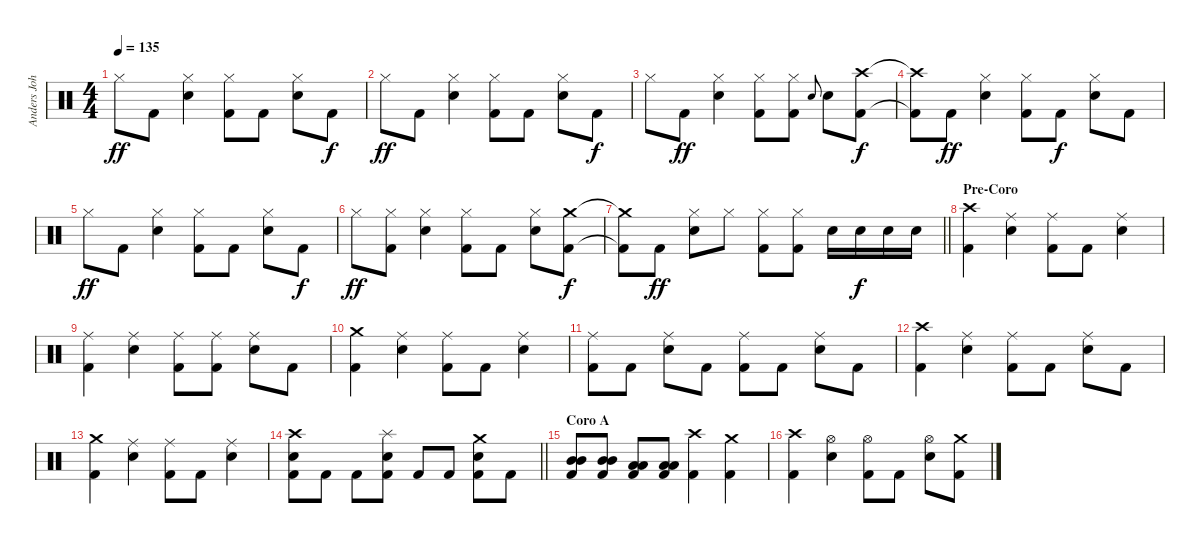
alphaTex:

\track ("Anders Johansson" "Anders Joh") {instrument percussion}
\staff {score}
\articulation defaults
\ts (4 4)
\tempo 135
\clef neutral
\ks c "Hi-Hat (closed)".8{dy ff} "Kick (hit) 2".8
("Hi-Hat (closed)" "Snare (hit) 2").4 ("Hi-Hat (closed)" "Kick (hit) 2").8 "Kick (hit) 2".8 ("Hi-Hat (closed)" "Snare (hit) 2").8 "Kick (hit) 2".8{dy f} |
"Hi-Hat (closed)".8{dy ff} "Kick (hit) 2".8 ("Hi-Hat (closed)" "Snare (hit) 2").4 ("Hi-Hat (closed)" "Kick (hit) 2").8 "Kick (hit) 2".8 ("Hi-Hat (closed)" "Snare (hit) 2").8 "Kick (hit) 2".8{dy f} |
"Hi-Hat (closed)".8 "Kick (hit) 2".8{dy ff} ("Hi-Hat (closed)" "Snare (hit) 2").4 ("Hi-Hat (closed)" "Kick (hit) 2").8 ("Hi-Hat (closed)" "Kick (hit) 2").8 "Snare (hit) 2".8{gr onbeat} "Snare (hit) 2".8 ("Crash high (hit)" "Kick (hit) 2").8{dy f} |
("Crash high (hit)"{t} "Kick (hit) 2"{t}).8 "Kick (hit) 2".8{dy ff} ("Hi-Hat (closed)" "Snare (hit) 2").4 ("Hi-Hat (closed)" "Kick (hit) 2").8 "Kick (hit) 2".8{dy f} ("Hi-Hat (closed)" "Snare (hit) 2").8 "Kick (hit) 2".8 |
"Hi-Hat (closed)".8{dy ff} "Kick (hit) 2".8 ("Hi-Hat (closed)" "Snare (hit) 2").4 ("Hi-Hat (closed)" "Kick (hit) 2").8 "Kick (hit) 2".8 ("Hi-Hat (closed)" "Snare (hit) 2").8 "Kick (hit) 2".8{dy f} |
"Hi-Hat (closed)".8{dy ff} ("Hi-Hat (closed)" "Kick (hit) 2").8 ("Hi-Hat (closed)" "Snare (hit) 2").4 ("Hi-Hat (closed)" "Kick (hit) 2").8 "Kick (hit) 2".8 ("Hi-Hat (closed)" "Snare (hit) 2").8 ("Crash medium (hit)" "Kick (hit) 2").8{dy f} |
\barLineRight lightlight
("Crash medium (hit)"{t} "Kick (hit) 2"{t}).8 "Kick (hit) 2".8{dy ff} ("Hi-Hat (closed)" "Snare (hit) 2").8 "Hi-Hat (closed)".8 ("Hi-Hat (closed)" "Kick (hit) 2").8 ("Hi-Hat (closed)" "Kick (hit) 2").8 "Snare (hit) 2".16 "Snare (hit) 2".16{dy f} "Snare (hit) 2".16 "Snare (hit) 2".16 |
\section ("" "Pre-Coro")
("Crash high (hit)" "Kick (hit) 2").4 ("Ride (middle)" "Snare (hit) 2").4 ("Ride (middle)" "Kick (hit) 2").8 "Kick (hit) 2".8 ("Ride (middle)" "Snare (hit) 2").4 |
("Ride (middle)" "Kick (hit) 2").4 ("Ride (middle)" "Snare (hit) 2").4 ("Ride (middle)" "Kick (hit) 2").8 ("Ride (middle)" "Kick (hit) 2").8 ("Ride (middle)" "Snare (hit) 2").8 "Kick (hit) 2".8 |
("Crash medium (hit)" "Kick (hit) 2").4 ("Ride (middle)" "Snare (hit) 2").4 ("Ride (middle)" "Kick (hit) 2").8 "Kick (hit) 2".8 ("Ride (middle)" "Snare (hit) 2").4 |
("Ride (middle)" "Kick (hit) 2").8 "Kick (hit) 2".8 ("Ride (middle)" "Snare (hit) 2").8 "Kick (hit) 2".8 ("Ride (middle)" "Kick (hit) 2").8 "Kick (hit) 2".8 ("Ride (middle)" "Snare (hit) 2").8 "Kick (hit) 2".8 |
("Crash high (hit)" "Kick (hit) 2").4 ("Ride (middle)" "Snare (hit) 2").4 ("Ride (middle)" "Kick (hit) 2").8 "Kick (hit) 2".8 ("Ride (middle)" "Snare (hit) 2").8 "Kick (hit) 2".8 |
("Crash medium (hit)" "Kick (hit) 2").4 ("Ride (middle)" "Snare (hit) 2").4 ("Ride (middle)" "Kick (hit) 2").8 "Kick (hit) 2".8 ("Ride (middle)" "Snare (hit) 2").4 |
\barLineRight lightlight
("Snare (hit) 2" "Crash high (hit)" "Kick (hit) 2").8 "Kick (hit) 2".8 "Kick (hit) 2".8 ("Snare (hit) 2" "Splash (hit)" "Kick (hit) 2").8 "Kick (hit) 2".8 "Kick (hit) 2".8 ("Snare (hit) 2" "Crash medium (hit)" "Kick (hit) 2").8 "Kick (hit) 2".8 |
\section ("" "Coro A")
("Mid Tom (hit)" "Mid Tom (hit)" "Kick (hit) 2").8 ("Mid Tom (hit)" "Mid Tom (hit)" "Kick (hit) 2").8 ("Low Tom (hit)" "Low Tom (hit)" "Kick (hit) 2").8 ("Low Tom (hit)" "Low Tom (hit)" "Kick (hit) 2").8 ("Crash high (hit)" "Kick (hit) 2").4 ("Crash medium (hit)" "Kick (hit) 2").4 |
("Crash high (hit)" "Kick (hit) 2").4 ("Hi-Hat (open)" "Snare (hit) 2").4 ("Hi-Hat (open)" "Kick (hit) 2").8 "Kick (hit) 2".8 ("Hi-Hat (open)" "Snare (hit) 2").8 ("Crash medium (hit)" "Kick (hit) 2").8
